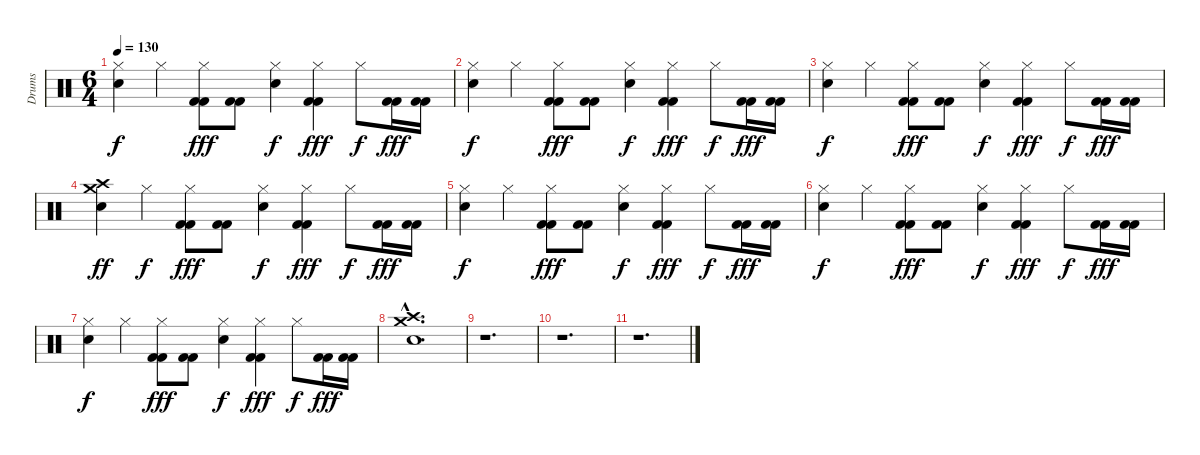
\track ("Drums" "Drums") {instrument percussion}
\staff {score}
\articulation defaults
\ts (6 4)
\tempo 130
\clef neutral
\ks c
("Hi-Hat (closed)" "Electric Snare (hit)").4{dy f} "Hi-Hat (closed)".4 ("Hi-Hat (closed)" "Kick (hit) 2" "Kick (hit) 2").8{dy fff} ("Kick (hit) 2" "Kick (hit) 2").8 ("Hi-Hat (closed)" "Electric Snare (hit)").4{dy f} ("Hi-Hat (closed)" "Kick (hit) 2" "Kick (hit) 2").4{dy fff} "Hi-Hat (closed)".8{dy f} ("Kick (hit) 2" "Kick (hit) 2").16{dy fff} ("Kick (hit) 2" "Kick (hit) 2").16 |
("Hi-Hat (closed)" "Electric Snare (hit)").4{dy f} "Hi-Hat (closed)".4 ("Hi-Hat (closed)" "Kick (hit) 2" "Kick (hit) 2").8{dy fff} ("Kick (hit) 2" "Kick (hit) 2").8 ("Hi-Hat (closed)" "Electric Snare (hit)").4{dy f} ("Hi-Hat (closed)" "Kick (hit) 2" "Kick (hit) 2").4{dy fff} "Hi-Hat (closed)".8{dy f} ("Kick (hit) 2" "Kick (hit) 2").16{dy fff} ("Kick (hit) 2" "Kick (hit) 2").16 |
("Hi-Hat (closed)" "Electric Snare (hit)").4{dy f} "Hi-Hat (closed)".4 ("Hi-Hat (closed)" "Kick (hit) 2" "Kick (hit) 2").8{dy fff} ("Kick (hit) 2" "Kick (hit) 2").8 ("Hi-Hat (closed)" "Electric Snare (hit)").4{dy f} ("Hi-Hat (closed)" "Kick (hit) 2" "Kick (hit) 2").4{dy fff} "Hi-Hat (closed)".8{dy f} ("Kick (hit) 2" "Kick (hit) 2").16{dy fff} ("Kick (hit) 2" "Kick (hit) 2").16 |
("Crash high (hit)" "Crash medium (hit)" "Electric Snare (hit)").4{dy ff} "Hi-Hat (closed)".4{dy f} ("Hi-Hat (closed)" "Kick (hit) 2" "Kick (hit) 2").8{dy fff} ("Kick (hit) 2" "Kick (hit) 2").8 ("Hi-Hat (closed)" "Electric Snare (hit)").4{dy f} ("Hi-Hat (closed)" "Kick (hit) 2" "Kick (hit) 2").4{dy fff} "Hi-Hat (closed)".8{dy f} ("Kick (hit) 2" "Kick (hit) 2").16{dy fff} ("Kick (hit) 2" "Kick (hit) 2").16 |
("Hi-Hat (closed)" "Electric Snare (hit)").4{dy f} "Hi-Hat (closed)".4 ("Hi-Hat (closed)" "Kick (hit) 2" "Kick (hit) 2").8{dy fff} ("Kick (hit) 2" "Kick (hit) 2").8 ("Hi-Hat (closed)" "Electric Snare (hit)").4{dy f} ("Hi-Hat (closed)" "Kick (hit) 2" "Kick (hit) 2").4{dy fff} "Hi-Hat (closed)".8{dy f} ("Kick (hit) 2" "Kick (hit) 2").16{dy fff} ("Kick (hit) 2" "Kick (hit) 2").16 |
("Hi-Hat (closed)" "Electric Snare (hit)").4{dy f} "Hi-Hat (closed)".4 ("Hi-Hat (closed)" "Kick (hit) 2" "Kick (hit) 2").8{dy fff} ("Kick (hit) 2" "Kick (hit) 2").8 ("Hi-Hat (closed)" "Electric Snare (hit)").4{dy f} ("Hi-Hat (closed)" "Kick (hit) 2" "Kick (hit) 2").4{dy fff} "Hi-Hat (closed)".8{dy f} ("Kick (hit) 2" "Kick (hit) 2").16{dy fff} ("Kick (hit) 2" "Kick (hit) 2").16 |
("Hi-Hat (closed)" "Electric Snare (hit)").4{dy f} "Hi-Hat (closed)".4 ("Hi-Hat (closed)" "Kick (hit) 2" "Kick (hit) 2").8{dy fff} ("Kick (hit) 2" "Kick (hit) 2").8 ("Hi-Hat (closed)" "Electric Snare (hit)").4{dy f} ("Hi-Hat (closed)" "Kick (hit) 2" "Kick (hit) 2").4{dy fff} "Hi-Hat (closed)".8{dy f} ("Kick (hit) 2" "Kick (hit) 2").16{dy fff} ("Kick (hit) 2" "Kick (hit) 2").16 |
("Crash high (hit)"{hac} "Crash medium (hit)"{hac} "Electric Snare (hit)"{hac}).1{d} |
r.1{d} |
r.1{d} |
r.1{d}
